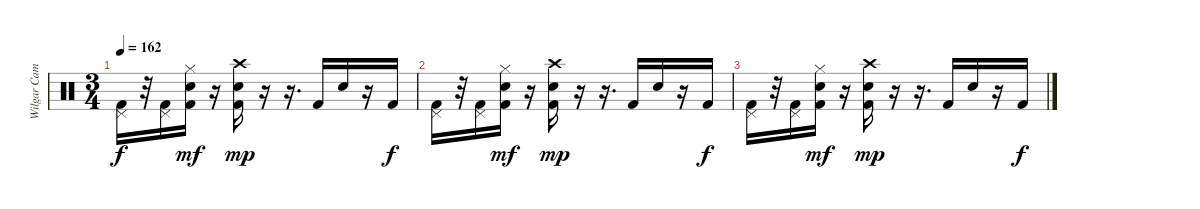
\track ("Wilgar Campbell" "Wilgar Cam") {instrument percussion}
\staff {score}
\articulation defaults
\ts (3 4)
\tempo 162
\clef neutral
\ks c
("Pedal Hi-Hat (hit)" "Kick (hit) 2").16{dy f} r.32 ("Pedal Hi-Hat (hit)" "Kick (hit) 2").16 ("Snare (hit) 2" "Hi-Hat (closed)" "Kick (hit) 2").16{dy mf} r.16 ("Crash high (hit)" "Snare (hit) 2" "Kick (hit) 2").16{dy mp} r.16 r.16{d} "Kick (hit) 2".16 "Electric Snare (hit)".16 r.16 "Kick (hit) 2".16{dy f} |
("Pedal Hi-Hat (hit)" "Kick (hit) 2").16 r.32 ("Pedal Hi-Hat (hit)" "Kick (hit) 2").16 ("Snare (hit) 2" "Hi-Hat (closed)" "Kick (hit) 2").16{dy mf} r.16 ("Crash high (hit)" "Snare (hit) 2" "Kick (hit) 2").16{dy mp} r.16 r.16{d} "Kick (hit) 2".16 "Electric Snare (hit)".16 r.16 "Kick (hit) 2".16{dy f} |
("Pedal Hi-Hat (hit)" "Kick (hit) 2").16 r.32 ("Pedal Hi-Hat (hit)" "Kick (hit) 2").16 ("Snare (hit) 2" "Hi-Hat (closed)" "Kick (hit) 2").16{dy mf} r.16 ("Crash high (hit)" "Snare (hit) 2" "Kick (hit) 2").16{dy mp} r.16 r.16{d} "Kick (hit) 2".16 "Electric Snare (hit)".16 r.16 "Kick (hit) 2".16{dy f}
